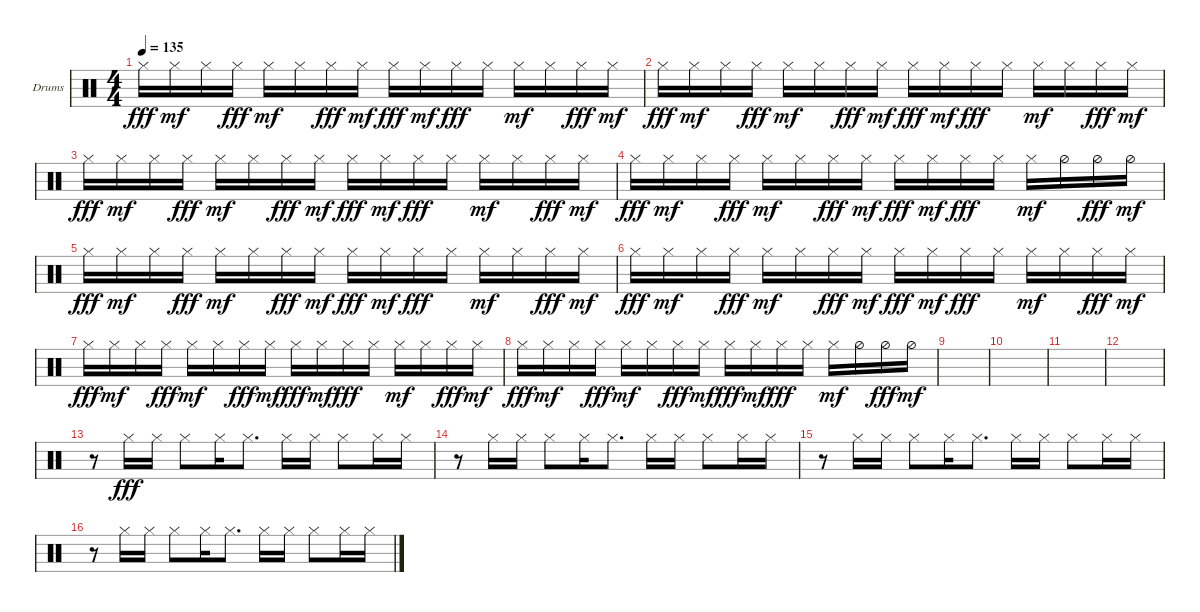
\defaultSystemsLayout 4
\bracketExtendMode groupsimilarinstruments
\firstSystemTrackNameOrientation horizontal
\otherSystemsTrackNameOrientation horizontal
\track ("Matt Helders" "Drums") {instrument percussion}
\staff {score}
\articulation defaults
\ts (4 4)
\tempo 135
\clef neutral
\ks c "Hi-Hat (closed)".16{dy fff} "Hi-Hat (closed)".16{dy mf} "Hi-Hat (closed)".16 "Hi-Hat (closed)".16{dy fff} "Hi-Hat (closed)".16{dy mf} "Hi-Hat (closed)".16 "Hi-Hat (closed)".16{dy fff} "Hi-Hat (closed)".16{dy mf} "Hi-Hat (closed)".16{dy fff} "Hi-Hat (closed)".16{dy mf} "Hi-Hat (closed)".16{dy fff} "Hi-Hat (closed)".16 "Hi-Hat (closed)".16{dy mf} "Hi-Hat (closed)".16 "Hi-Hat (closed)".16{dy fff} "Hi-Hat (closed)".16{dy mf}
|
"Hi-Hat (closed)".16{dy fff} "Hi-Hat (closed)".16{dy mf} "Hi-Hat (closed)".16 "Hi-Hat (closed)".16{dy fff} "Hi-Hat (closed)".16{dy mf} "Hi-Hat (closed)".16 "Hi-Hat (closed)".16{dy fff} "Hi-Hat (closed)".16{dy mf} "Hi-Hat (closed)".16{dy fff} "Hi-Hat (closed)".16{dy mf} "Hi-Hat (closed)".16{dy fff} "Hi-Hat (closed)".16 "Hi-Hat (closed)".16{dy mf} "Hi-Hat (closed)".16 "Hi-Hat (closed)".16{dy fff} "Hi-Hat (closed)".16{dy mf} |
"Hi-Hat (closed)".16{dy fff} "Hi-Hat (closed)".16{dy mf} "Hi-Hat (closed)".16 "Hi-Hat (closed)".16{dy fff} "Hi-Hat (closed)".16{dy mf} "Hi-Hat (closed)".16 "Hi-Hat (closed)".16{dy fff} "Hi-Hat (closed)".16{dy mf} "Hi-Hat (closed)".16{dy fff} "Hi-Hat (closed)".16{dy mf} "Hi-Hat (closed)".16{dy fff} "Hi-Hat (closed)".16 "Hi-Hat (closed)".16{dy mf} "Hi-Hat (closed)".16 "Hi-Hat (closed)".16{dy fff} "Hi-Hat (closed)".16{dy mf} |
"Hi-Hat (closed)".16{dy fff} "Hi-Hat (closed)".16{dy mf} "Hi-Hat (closed)".16 "Hi-Hat (closed)".16{dy fff} "Hi-Hat (closed)".16{dy mf} "Hi-Hat (closed)".16 "Hi-Hat (closed)".16{dy fff} "Hi-Hat (closed)".16{dy mf} "Hi-Hat (closed)".16{dy fff} "Hi-Hat (closed)".16{dy mf} "Hi-Hat (closed)".16{dy fff} "Hi-Hat (closed)".16 "Hi-Hat (closed)".16{dy mf} "Hi-Hat (half)".16 "Hi-Hat (half)".16{dy fff} "Hi-Hat (half)".16{dy mf} |
"Hi-Hat (closed)".16{dy fff} "Hi-Hat (closed)".16{dy mf} "Hi-Hat (closed)".16 "Hi-Hat (closed)".16{dy fff} "Hi-Hat (closed)".16{dy mf} "Hi-Hat (closed)".16 "Hi-Hat (closed)".16{dy fff} "Hi-Hat (closed)".16{dy mf} "Hi-Hat (closed)".16{dy fff} "Hi-Hat (closed)".16{dy mf} "Hi-Hat (closed)".16{dy fff} "Hi-Hat (closed)".16 "Hi-Hat (closed)".16{dy mf} "Hi-Hat (closed)".16 "Hi-Hat (closed)".16{dy fff} "Hi-Hat (closed)".16{dy mf} |
"Hi-Hat (closed)".16{dy fff} "Hi-Hat (closed)".16{dy mf} "Hi-Hat (closed)".16 "Hi-Hat (closed)".16{dy fff} "Hi-Hat (closed)".16{dy mf} "Hi-Hat (closed)".16 "Hi-Hat (closed)".16{dy fff} "Hi-Hat (closed)".16{dy mf} "Hi-Hat (closed)".16{dy fff} "Hi-Hat (closed)".16{dy mf} "Hi-Hat (closed)".16{dy fff} "Hi-Hat (closed)".16 "Hi-Hat (closed)".16{dy mf} "Hi-Hat (closed)".16 "Hi-Hat (closed)".16{dy fff} "Hi-Hat (closed)".16{dy mf} |
"Hi-Hat (closed)".16{dy fff} "Hi-Hat (closed)".16{dy mf} "Hi-Hat (closed)".16 "Hi-Hat (closed)".16{dy fff} "Hi-Hat (closed)".16{dy mf} "Hi-Hat (closed)".16 "Hi-Hat (closed)".16{dy fff} "Hi-Hat (closed)".16{dy mf} "Hi-Hat (closed)".16{dy fff} "Hi-Hat (closed)".16{dy mf} "Hi-Hat (closed)".16{dy fff} "Hi-Hat (closed)".16 "Hi-Hat (closed)".16{dy mf} "Hi-Hat (closed)".16 "Hi-Hat (closed)".16{dy fff} "Hi-Hat (closed)".16{dy mf} |
"Hi-Hat (closed)".16{dy fff} "Hi-Hat (closed)".16{dy mf} "Hi-Hat (closed)".16 "Hi-Hat (closed)".16{dy fff} "Hi-Hat (closed)".16{dy mf} "Hi-Hat (closed)".16 "Hi-Hat (closed)".16{dy fff} "Hi-Hat (closed)".16{dy mf} "Hi-Hat (closed)".16{dy fff} "Hi-Hat (closed)".16{dy mf} "Hi-Hat (closed)".16{dy fff} "Hi-Hat (closed)".16 "Hi-Hat (closed)".16{dy mf} "Hi-Hat (half)".16 "Hi-Hat (half)".16{dy fff} "Hi-Hat (half)".16{dy mf} |
|
|
|
|
r.8 "Hi-Hat (closed)".16{dy fff} "Hi-Hat (closed)".16 "Hi-Hat (closed)".8 "Hi-Hat (closed)".16 "Hi-Hat (closed)".8{d} "Hi-Hat (closed)".16 "Hi-Hat (closed)".16 "Hi-Hat (closed)".8 "Hi-Hat (closed)".16 "Hi-Hat (closed)".16 |
r.8 "Hi-Hat (closed)".16 "Hi-Hat (closed)".16 "Hi-Hat (closed)".8 "Hi-Hat (closed)".16 "Hi-Hat (closed)".8{d} "Hi-Hat (closed)".16 "Hi-Hat (closed)".16 "Hi-Hat (closed)".8 "Hi-Hat (closed)".16 "Hi-Hat (closed)".16 |
r.8 "Hi-Hat (closed)".16 "Hi-Hat (closed)".16 "Hi-Hat (closed)".8 "Hi-Hat (closed)".16 "Hi-Hat (closed)".8{d} "Hi-Hat (closed)".16 "Hi-Hat (closed)".16 "Hi-Hat (closed)".8 "Hi-Hat (closed)".16 "Hi-Hat (closed)".16 |
r.8 "Hi-Hat (closed)".16 "Hi-Hat (closed)".16 "Hi-Hat (closed)".8 "Hi-Hat (closed)".16 "Hi-Hat (closed)".8{d} "Hi-Hat (closed)".16 "Hi-Hat (closed)".16 "Hi-Hat (closed)".8 "Hi-Hat (closed)".16 "Hi-Hat (closed)".16
